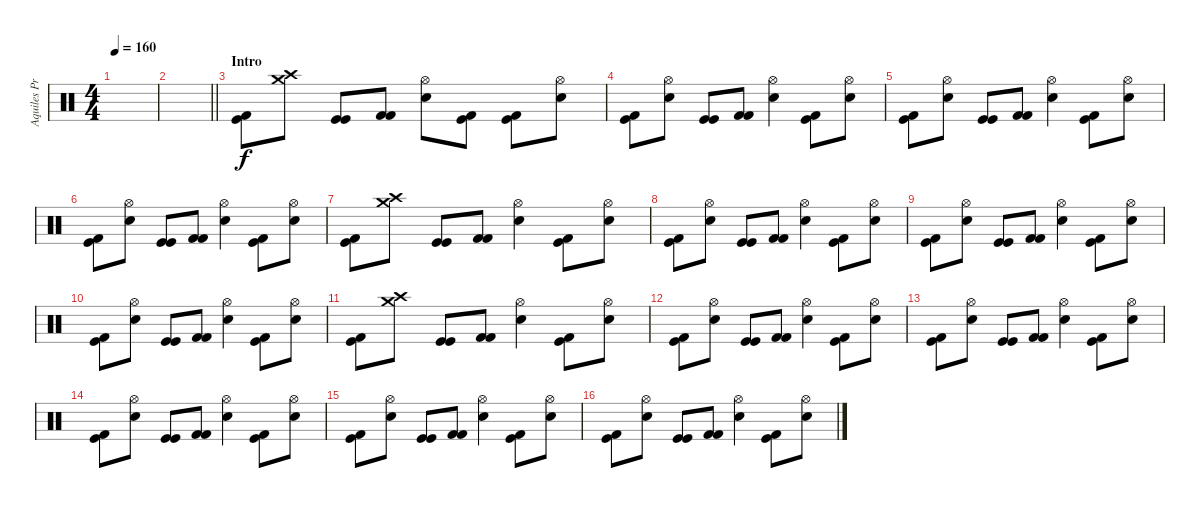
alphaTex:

\track ("Aquiles Priester" "Aquiles Pr") {instrument percussion}
\staff {score}
\articulation defaults
\ts (4 4)
\tempo 160
\clef neutral
\ks c
|
\barLineRight lightlight
|
\section ("" "Intro")
("Kick (hit) 2" "Kick (hit)").8 ("Crash medium (hit)" "Crash high (hit)").8 ("Kick (hit)" "Kick (hit)").8 ("Kick (hit) 2" "Kick (hit) 2").8 ("Hi-Hat (open)" "Electric Snare (hit)").8 ("Kick (hit)" "Kick (hit) 2").8 ("Kick (hit)" "Kick (hit) 2").8 ("Hi-Hat (open)" "Electric Snare (hit)").8 |
("Kick (hit)" "Kick (hit) 2").8 ("Hi-Hat (open)" "Electric Snare (hit)").8 ("Kick (hit)" "Kick (hit)").8 ("Kick (hit) 2" "Kick (hit) 2").8 ("Hi-Hat (open)" "Electric Snare (hit)").4 ("Kick (hit)" "Kick (hit) 2").8 ("Hi-Hat (open)" "Electric Snare (hit)").8 |
("Kick (hit)" "Kick (hit) 2").8 ("Hi-Hat (open)" "Electric Snare (hit)").8 ("Kick (hit)" "Kick (hit)").8 ("Kick (hit) 2" "Kick (hit) 2").8 ("Hi-Hat (open)" "Electric Snare (hit)").4 ("Kick (hit)" "Kick (hit) 2").8 ("Hi-Hat (open)" "Electric Snare (hit)").8 |
("Kick (hit)" "Kick (hit) 2").8 ("Hi-Hat (open)" "Electric Snare (hit)").8 ("Kick (hit)" "Kick (hit)").8 ("Kick (hit) 2" "Kick (hit) 2").8 ("Hi-Hat (open)" "Electric Snare (hit)").4 ("Kick (hit)" "Kick (hit) 2").8 ("Hi-Hat (open)" "Electric Snare (hit)").8 |
("Kick (hit)" "Kick (hit) 2").8 ("Crash high (hit)" "Crash medium (hit)").8 ("Kick (hit)" "Kick (hit)").8 ("Kick (hit) 2" "Kick (hit) 2").8 ("Hi-Hat (open)" "Electric Snare (hit)").4 ("Kick (hit)" "Kick (hit) 2").8 ("Hi-Hat (open)" "Electric Snare (hit)").8 |
("Kick (hit)" "Kick (hit) 2").8 ("Hi-Hat (open)" "Electric Snare (hit)").8 ("Kick (hit)" "Kick (hit)").8 ("Kick (hit) 2" "Kick (hit) 2").8 ("Hi-Hat (open)" "Electric Snare (hit)").4 ("Kick (hit)" "Kick (hit) 2").8 ("Hi-Hat (open)" "Electric Snare (hit)").8 |
("Kick (hit)" "Kick (hit) 2").8 ("Hi-Hat (open)" "Electric Snare (hit)").8 ("Kick (hit)" "Kick (hit)").8 ("Kick (hit) 2" "Kick (hit) 2").8 ("Hi-Hat (open)" "Electric Snare (hit)").4 ("Kick (hit)" "Kick (hit) 2").8 ("Hi-Hat (open)" "Electric Snare (hit)").8 |
("Kick (hit)" "Kick (hit) 2").8 ("Hi-Hat (open)" "Electric Snare (hit)").8 ("Kick (hit)" "Kick (hit)").8 ("Kick (hit) 2" "Kick (hit) 2").8 ("Hi-Hat (open)" "Electric Snare (hit)").4 ("Kick (hit)" "Kick (hit) 2").8 ("Hi-Hat (open)" "Electric Snare (hit)").8 |
("Kick (hit)" "Kick (hit) 2").8 ("Crash medium (hit)" "Crash high (hit)").8 ("Kick (hit)" "Kick (hit)").8 ("Kick (hit) 2" "Kick (hit) 2").8 ("Hi-Hat (open)" "Electric Snare (hit)").4 ("Kick (hit)" "Kick (hit) 2").8 ("Hi-Hat (open)" "Electric Snare (hit)").8 |
("Kick (hit)" "Kick (hit) 2").8 ("Hi-Hat (open)" "Electric Snare (hit)").8 ("Kick (hit)" "Kick (hit)").8 ("Kick (hit) 2" "Kick (hit) 2").8 ("Hi-Hat (open)" "Electric Snare (hit)").4 ("Kick (hit)" "Kick (hit) 2").8 ("Hi-Hat (open)" "Electric Snare (hit)").8 |
("Kick (hit)" "Kick (hit) 2").8 ("Hi-Hat (open)" "Electric Snare (hit)").8 ("Kick (hit)" "Kick (hit)").8 ("Kick (hit) 2" "Kick (hit) 2").8 ("Hi-Hat (open)" "Electric Snare (hit)").4 ("Kick (hit)" "Kick (hit) 2").8 ("Hi-Hat (open)" "Electric Snare (hit)").8 |
("Kick (hit)" "Kick (hit) 2").8 ("Hi-Hat (open)" "Electric Snare (hit)").8 ("Kick (hit)" "Kick (hit)").8 ("Kick (hit) 2" "Kick (hit) 2").8 ("Hi-Hat (open)" "Electric Snare (hit)").4 ("Kick (hit)" "Kick (hit) 2").8 ("Hi-Hat (open)" "Electric Snare (hit)").8 |
("Kick (hit)" "Kick (hit) 2").8 ("Hi-Hat (open)" "Electric Snare (hit)").8 ("Kick (hit)" "Kick (hit)").8 ("Kick (hit) 2" "Kick (hit) 2").8 ("Hi-Hat (open)" "Electric Snare (hit)").4 ("Kick (hit)" "Kick (hit) 2").8 ("Hi-Hat (open)" "Electric Snare (hit)").8 |
("Kick (hit)" "Kick (hit) 2").8 ("Hi-Hat (open)" "Electric Snare (hit)").8 ("Kick (hit)" "Kick (hit)").8 ("Kick (hit) 2" "Kick (hit) 2").8 ("Hi-Hat (open)" "Electric Snare (hit)").4 ("Kick (hit)" "Kick (hit) 2").8 ("Hi-Hat (open)" "Electric Snare (hit)").8
